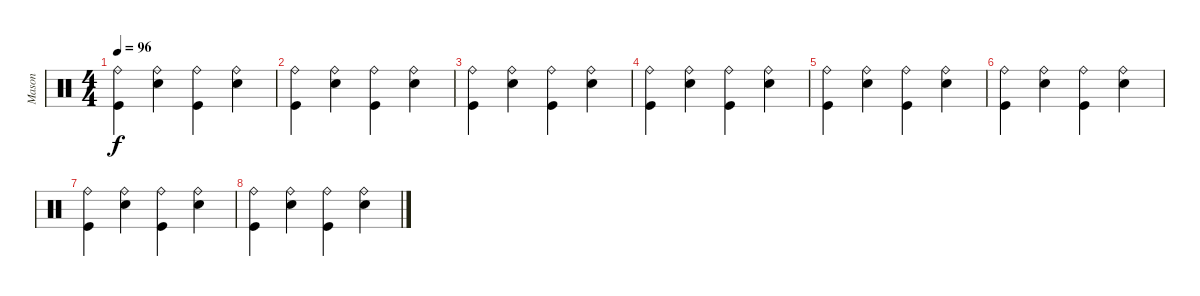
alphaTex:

\track ("Mason" "Mason") {instrument percussion}
\staff {score}
\articulation defaults
\ts (4 4)
\tempo 96
\clef neutral
\ks c
("Kick (hit)" "Ride (bell)").4{dy f} ("Snare (hit) 2" "Ride (bell)").4 ("Kick (hit)" "Ride (bell)").4 ("Snare (hit) 2" "Ride (bell)").4 |
("Kick (hit)" "Ride (bell)").4 ("Snare (hit) 2" "Ride (bell)").4 ("Kick (hit)" "Ride (bell)").4 ("Snare (hit) 2" "Ride (bell)").4 |
("Kick (hit)" "Ride (bell)").4 ("Snare (hit) 2" "Ride (bell)").4 ("Kick (hit)" "Ride (bell)").4 ("Snare (hit) 2" "Ride (bell)").4 |
("Kick (hit)" "Ride (bell)").4 ("Snare (hit) 2" "Ride (bell)").4 ("Kick (hit)" "Ride (bell)").4 ("Snare (hit) 2" "Ride (bell)").4 |
("Kick (hit)" "Ride (bell)").4 ("Snare (hit) 2" "Ride (bell)").4 ("Kick (hit)" "Ride (bell)").4 ("Snare (hit) 2" "Ride (bell)").4 |
("Kick (hit)" "Ride (bell)").4 ("Snare (hit) 2" "Ride (bell)").4 ("Kick (hit)" "Ride (bell)").4 ("Snare (hit) 2" "Ride (bell)").4 |
("Kick (hit)" "Ride (bell)").4 ("Snare (hit) 2" "Ride (bell)").4 ("Kick (hit)" "Ride (bell)").4 ("Snare (hit) 2" "Ride (bell)").4 |
("Kick (hit)" "Ride (bell)").4 ("Snare (hit) 2" "Ride (bell)").4 ("Kick (hit)" "Ride (bell)").4 ("Snare (hit) 2" "Ride (bell)").4
